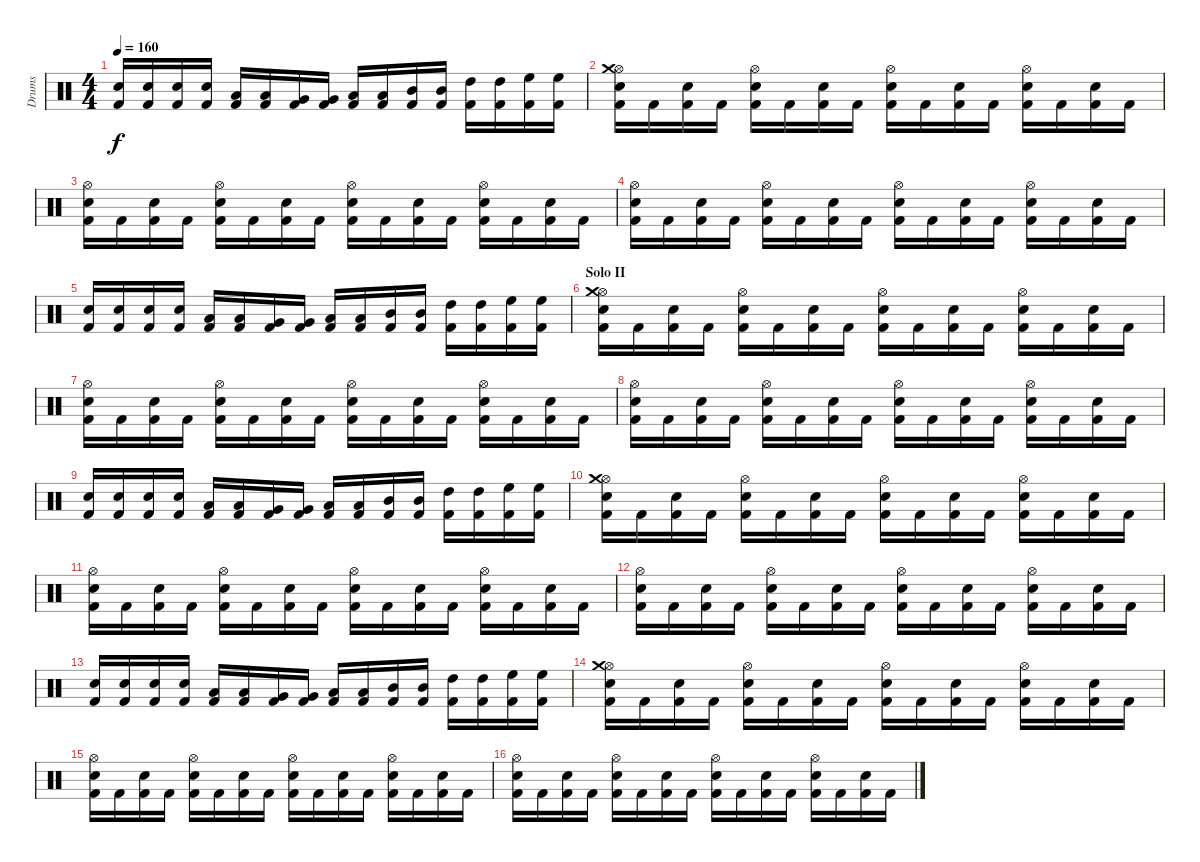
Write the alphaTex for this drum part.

\track ("Drums" "Drums") {instrument percussion}
\staff {score}
\articulation defaults
\ts (4 4)
\tempo 160
\clef neutral
\ks c
("Kick (hit) 2" "Snare (hit) 2").16{dy f} ("Kick (hit) 2" "Snare (hit) 2").16 ("Kick (hit) 2" "Snare (hit) 2").16 ("Kick (hit) 2" "Snare (hit) 2").16 ("Kick (hit) 2" "Low Floor Tom (hit)").16 ("Kick (hit) 2" "Low Floor Tom (hit)").16 ("Kick (hit) 2" "Very Low Tom (hit)").16 ("Kick (hit) 2" "Very Low Tom (hit)").16 ("Kick (hit) 2" "Low Tom (hit)").16 ("Kick (hit) 2" "Low Tom (hit)").16 ("Kick (hit) 2" "Mid Tom (hit)").16 ("Kick (hit) 2" "Mid Tom (hit)").16 ("Kick (hit) 2" "High Tom (hit)").16 ("Kick (hit) 2" "High Tom (hit)").16 ("Kick (hit) 2" "High Floor Tom (hit)").16 ("Kick (hit) 2" "High Floor Tom (hit)").16 |
("Kick (hit) 2" "Snare (hit) 2" "Hi-Hat (open)" "Crash medium (hit)").16 "Kick (hit) 2".16 ("Kick (hit) 2" "Snare (hit) 2").16 "Kick (hit) 2".16 ("Kick (hit) 2" "Snare (hit) 2" "Hi-Hat (open)").16 "Kick (hit) 2".16 ("Kick (hit) 2" "Snare (hit) 2").16 "Kick (hit) 2".16 ("Kick (hit) 2" "Snare (hit) 2" "Hi-Hat (open)").16 "Kick (hit) 2".16 ("Kick (hit) 2" "Snare (hit) 2").16 "Kick (hit) 2".16 ("Kick (hit) 2" "Snare (hit) 2" "Hi-Hat (open)").16 "Kick (hit) 2".16 ("Kick (hit) 2" "Snare (hit) 2").16 "Kick (hit) 2".16 |
("Kick (hit) 2" "Snare (hit) 2" "Hi-Hat (open)").16 "Kick (hit) 2".16 ("Kick (hit) 2" "Snare (hit) 2").16 "Kick (hit) 2".16 ("Kick (hit) 2" "Snare (hit) 2" "Hi-Hat (open)").16 "Kick (hit) 2".16 ("Kick (hit) 2" "Snare (hit) 2").16 "Kick (hit) 2".16 ("Kick (hit) 2" "Snare (hit) 2" "Hi-Hat (open)").16 "Kick (hit) 2".16 ("Kick (hit) 2" "Snare (hit) 2").16 "Kick (hit) 2".16 ("Kick (hit) 2" "Snare (hit) 2" "Hi-Hat (open)").16 "Kick (hit) 2".16 ("Kick (hit) 2" "Snare (hit) 2").16 "Kick (hit) 2".16 |
("Kick (hit) 2" "Snare (hit) 2" "Hi-Hat (open)").16 "Kick (hit) 2".16 ("Kick (hit) 2" "Snare (hit) 2").16 "Kick (hit) 2".16 ("Kick (hit) 2" "Snare (hit) 2" "Hi-Hat (open)").16 "Kick (hit) 2".16 ("Kick (hit) 2" "Snare (hit) 2").16 "Kick (hit) 2".16 ("Kick (hit) 2" "Snare (hit) 2" "Hi-Hat (open)").16 "Kick (hit) 2".16 ("Kick (hit) 2" "Snare (hit) 2").16 "Kick (hit) 2".16 ("Kick (hit) 2" "Snare (hit) 2" "Hi-Hat (open)").16 "Kick (hit) 2".16 ("Kick (hit) 2" "Snare (hit) 2").16 "Kick (hit) 2".16 |
("Kick (hit) 2" "Snare (hit) 2").16 ("Kick (hit) 2" "Snare (hit) 2").16 ("Kick (hit) 2" "Snare (hit) 2").16 ("Kick (hit) 2" "Snare (hit) 2").16 ("Kick (hit) 2" "Low Floor Tom (hit)").16 ("Kick (hit) 2" "Low Floor Tom (hit)").16 ("Kick (hit) 2" "Very Low Tom (hit)").16 ("Kick (hit) 2" "Very Low Tom (hit)").16 ("Kick (hit) 2" "Low Tom (hit)").16 ("Kick (hit) 2" "Low Tom (hit)").16 ("Kick (hit) 2" "Mid Tom (hit)").16 ("Kick (hit) 2" "Mid Tom (hit)").16 ("Kick (hit) 2" "High Tom (hit)").16 ("Kick (hit) 2" "High Tom (hit)").16 ("Kick (hit) 2" "High Floor Tom (hit)").16 ("Kick (hit) 2" "High Floor Tom (hit)").16 |
\section ("" "Solo II")
("Kick (hit) 2" "Snare (hit) 2" "Hi-Hat (open)" "Crash medium (hit)").16 "Kick (hit) 2".16 ("Kick (hit) 2" "Snare (hit) 2").16 "Kick (hit) 2".16 ("Kick (hit) 2" "Snare (hit) 2" "Hi-Hat (open)").16 "Kick (hit) 2".16 ("Kick (hit) 2" "Snare (hit) 2").16 "Kick (hit) 2".16 ("Kick (hit) 2" "Snare (hit) 2" "Hi-Hat (open)").16 "Kick (hit) 2".16 ("Kick (hit) 2" "Snare (hit) 2").16 "Kick (hit) 2".16 ("Kick (hit) 2" "Snare (hit) 2" "Hi-Hat (open)").16 "Kick (hit) 2".16 ("Kick (hit) 2" "Snare (hit) 2").16 "Kick (hit) 2".16 |
("Kick (hit) 2" "Snare (hit) 2" "Hi-Hat (open)").16 "Kick (hit) 2".16 ("Kick (hit) 2" "Snare (hit) 2").16 "Kick (hit) 2".16 ("Kick (hit) 2" "Snare (hit) 2" "Hi-Hat (open)").16 "Kick (hit) 2".16 ("Kick (hit) 2" "Snare (hit) 2").16 "Kick (hit) 2".16 ("Kick (hit) 2" "Snare (hit) 2" "Hi-Hat (open)").16 "Kick (hit) 2".16 ("Kick (hit) 2" "Snare (hit) 2").16 "Kick (hit) 2".16 ("Kick (hit) 2" "Snare (hit) 2" "Hi-Hat (open)").16 "Kick (hit) 2".16 ("Kick (hit) 2" "Snare (hit) 2").16 "Kick (hit) 2".16 |
("Kick (hit) 2" "Snare (hit) 2" "Hi-Hat (open)").16 "Kick (hit) 2".16 ("Kick (hit) 2" "Snare (hit) 2").16 "Kick (hit) 2".16 ("Kick (hit) 2" "Snare (hit) 2" "Hi-Hat (open)").16 "Kick (hit) 2".16 ("Kick (hit) 2" "Snare (hit) 2").16 "Kick (hit) 2".16 ("Kick (hit) 2" "Snare (hit) 2" "Hi-Hat (open)").16 "Kick (hit) 2".16 ("Kick (hit) 2" "Snare (hit) 2").16 "Kick (hit) 2".16 ("Kick (hit) 2" "Snare (hit) 2" "Hi-Hat (open)").16 "Kick (hit) 2".16 ("Kick (hit) 2" "Snare (hit) 2").16 "Kick (hit) 2".16 |
("Kick (hit) 2" "Snare (hit) 2").16 ("Kick (hit) 2" "Snare (hit) 2").16 ("Kick (hit) 2" "Snare (hit) 2").16 ("Kick (hit) 2" "Snare (hit) 2").16 ("Kick (hit) 2" "Low Floor Tom (hit)").16 ("Kick (hit) 2" "Low Floor Tom (hit)").16 ("Kick (hit) 2" "Very Low Tom (hit)").16 ("Kick (hit) 2" "Very Low Tom (hit)").16 ("Kick (hit) 2" "Low Tom (hit)").16 ("Kick (hit) 2" "Low Tom (hit)").16 ("Kick (hit) 2" "Mid Tom (hit)").16 ("Kick (hit) 2" "Mid Tom (hit)").16 ("Kick (hit) 2" "High Tom (hit)").16 ("Kick (hit) 2" "High Tom (hit)").16 ("Kick (hit) 2" "High Floor Tom (hit)").16 ("Kick (hit) 2" "High Floor Tom (hit)").16 |
("Kick (hit) 2" "Snare (hit) 2" "Hi-Hat (open)" "Crash medium (hit)").16 "Kick (hit) 2".16 ("Kick (hit) 2" "Snare (hit) 2").16 "Kick (hit) 2".16 ("Kick (hit) 2" "Snare (hit) 2" "Hi-Hat (open)").16 "Kick (hit) 2".16 ("Kick (hit) 2" "Snare (hit) 2").16 "Kick (hit) 2".16 ("Kick (hit) 2" "Snare (hit) 2" "Hi-Hat (open)").16 "Kick (hit) 2".16 ("Kick (hit) 2" "Snare (hit) 2").16 "Kick (hit) 2".16 ("Kick (hit) 2" "Snare (hit) 2" "Hi-Hat (open)").16 "Kick (hit) 2".16 ("Kick (hit) 2" "Snare (hit) 2").16 "Kick (hit) 2".16 |
("Kick (hit) 2" "Snare (hit) 2" "Hi-Hat (open)").16 "Kick (hit) 2".16 ("Kick (hit) 2" "Snare (hit) 2").16 "Kick (hit) 2".16 ("Kick (hit) 2" "Snare (hit) 2" "Hi-Hat (open)").16 "Kick (hit) 2".16 ("Kick (hit) 2" "Snare (hit) 2").16 "Kick (hit) 2".16 ("Kick (hit) 2" "Snare (hit) 2" "Hi-Hat (open)").16 "Kick (hit) 2".16 ("Kick (hit) 2" "Snare (hit) 2").16 "Kick (hit) 2".16 ("Kick (hit) 2" "Snare (hit) 2" "Hi-Hat (open)").16 "Kick (hit) 2".16 ("Kick (hit) 2" "Snare (hit) 2").16 "Kick (hit) 2".16 |
("Kick (hit) 2" "Snare (hit) 2" "Hi-Hat (open)").16 "Kick (hit) 2".16 ("Kick (hit) 2" "Snare (hit) 2").16 "Kick (hit) 2".16 ("Kick (hit) 2" "Snare (hit) 2" "Hi-Hat (open)").16 "Kick (hit) 2".16 ("Kick (hit) 2" "Snare (hit) 2").16 "Kick (hit) 2".16 ("Kick (hit) 2" "Snare (hit) 2" "Hi-Hat (open)").16 "Kick (hit) 2".16 ("Kick (hit) 2" "Snare (hit) 2").16 "Kick (hit) 2".16 ("Kick (hit) 2" "Snare (hit) 2" "Hi-Hat (open)").16 "Kick (hit) 2".16 ("Kick (hit) 2" "Snare (hit) 2").16 "Kick (hit) 2".16 |
("Kick (hit) 2" "Snare (hit) 2").16 ("Kick (hit) 2" "Snare (hit) 2").16 ("Kick (hit) 2" "Snare (hit) 2").16 ("Kick (hit) 2" "Snare (hit) 2").16 ("Kick (hit) 2" "Low Floor Tom (hit)").16 ("Kick (hit) 2" "Low Floor Tom (hit)").16 ("Kick (hit) 2" "Very Low Tom (hit)").16 ("Kick (hit) 2" "Very Low Tom (hit)").16 ("Kick (hit) 2" "Low Tom (hit)").16 ("Kick (hit) 2" "Low Tom (hit)").16 ("Kick (hit) 2" "Mid Tom (hit)").16 ("Kick (hit) 2" "Mid Tom (hit)").16 ("Kick (hit) 2" "High Tom (hit)").16 ("Kick (hit) 2" "High Tom (hit)").16 ("Kick (hit) 2" "High Floor Tom (hit)").16 ("Kick (hit) 2" "High Floor Tom (hit)").16 |
("Kick (hit) 2" "Snare (hit) 2" "Hi-Hat (open)" "Crash medium (hit)").16 "Kick (hit) 2".16 ("Kick (hit) 2" "Snare (hit) 2").16 "Kick (hit) 2".16 ("Kick (hit) 2" "Snare (hit) 2" "Hi-Hat (open)").16 "Kick (hit) 2".16 ("Kick (hit) 2" "Snare (hit) 2").16 "Kick (hit) 2".16 ("Kick (hit) 2" "Snare (hit) 2" "Hi-Hat (open)").16 "Kick (hit) 2".16 ("Kick (hit) 2" "Snare (hit) 2").16 "Kick (hit) 2".16 ("Kick (hit) 2" "Snare (hit) 2" "Hi-Hat (open)").16 "Kick (hit) 2".16 ("Kick (hit) 2" "Snare (hit) 2").16 "Kick (hit) 2".16 |
("Kick (hit) 2" "Snare (hit) 2" "Hi-Hat (open)").16 "Kick (hit) 2".16 ("Kick (hit) 2" "Snare (hit) 2").16 "Kick (hit) 2".16 ("Kick (hit) 2" "Snare (hit) 2" "Hi-Hat (open)").16 "Kick (hit) 2".16 ("Kick (hit) 2" "Snare (hit) 2").16 "Kick (hit) 2".16 ("Kick (hit) 2" "Snare (hit) 2" "Hi-Hat (open)").16 "Kick (hit) 2".16 ("Kick (hit) 2" "Snare (hit) 2").16 "Kick (hit) 2".16 ("Kick (hit) 2" "Snare (hit) 2" "Hi-Hat (open)").16 "Kick (hit) 2".16 ("Kick (hit) 2" "Snare (hit) 2").16 "Kick (hit) 2".16 |
("Kick (hit) 2" "Snare (hit) 2" "Hi-Hat (open)").16 "Kick (hit) 2".16 ("Kick (hit) 2" "Snare (hit) 2").16 "Kick (hit) 2".16 ("Kick (hit) 2" "Snare (hit) 2" "Hi-Hat (open)").16 "Kick (hit) 2".16 ("Kick (hit) 2" "Snare (hit) 2").16 "Kick (hit) 2".16 ("Kick (hit) 2" "Snare (hit) 2" "Hi-Hat (open)").16 "Kick (hit) 2".16 ("Kick (hit) 2" "Snare (hit) 2").16 "Kick (hit) 2".16 ("Kick (hit) 2" "Snare (hit) 2" "Hi-Hat (open)").16 "Kick (hit) 2".16 ("Kick (hit) 2" "Snare (hit) 2").16 "Kick (hit) 2".16
